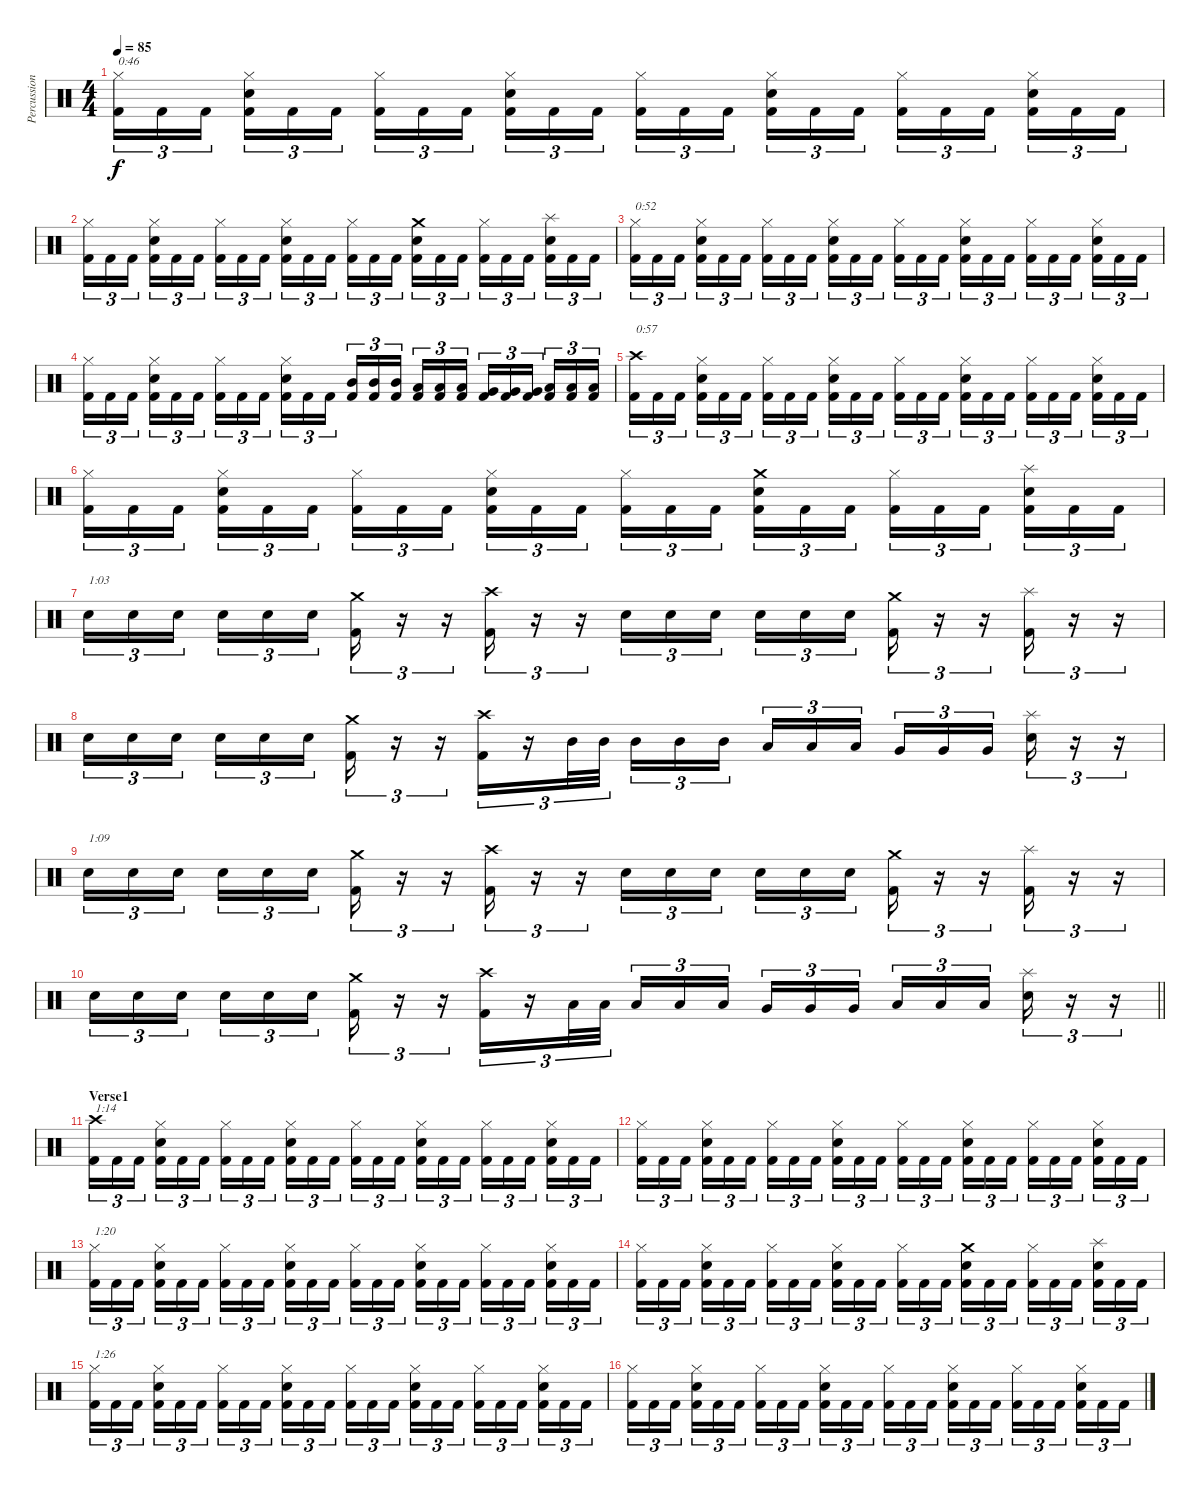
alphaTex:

\track ("Percussion" "Percussion") {instrument percussion}
\staff {score}
\articulation defaults
\ts (4 4)
\tempo 85
\clef neutral
\ks c
("Hi-Hat (closed)" "Kick (hit) 2").16{tu (3 2) txt "0:46" dy f} "Kick (hit) 2".16{tu (3 2)} "Kick (hit) 2".16{tu (3 2)} ("Hi-Hat (closed)" "Electric Snare (hit)" "Kick (hit) 2").16{tu (3 2)} "Kick (hit) 2".16{tu (3 2)} "Kick (hit) 2".16{tu (3 2)} ("Hi-Hat (closed)" "Kick (hit) 2").16{tu (3 2)} "Kick (hit) 2".16{tu (3 2)} "Kick (hit) 2".16{tu (3 2)} ("Hi-Hat (closed)" "Electric Snare (hit)" "Kick (hit) 2").16{tu (3 2)} "Kick (hit) 2".16{tu (3 2)} "Kick (hit) 2".16{tu (3 2)} ("Hi-Hat (closed)" "Kick (hit) 2").16{tu (3 2)} "Kick (hit) 2".16{tu (3 2)} "Kick (hit) 2".16{tu (3 2)} ("Hi-Hat (closed)" "Electric Snare (hit)" "Kick (hit) 2").16{tu (3 2)} "Kick (hit) 2".16{tu (3 2)} "Kick (hit) 2".16{tu (3 2)} ("Hi-Hat (closed)" "Kick (hit) 2").16{tu (3 2)} "Kick (hit) 2".16{tu (3 2)} "Kick (hit) 2".16{tu (3 2)} ("Hi-Hat (closed)" "Electric Snare (hit)" "Kick (hit) 2").16{tu (3 2)} "Kick (hit) 2".16{tu (3 2)} "Kick (hit) 2".16{tu (3 2)} |
("Hi-Hat (closed)" "Kick (hit) 2").16{tu (3 2)} "Kick (hit) 2".16{tu (3 2)} "Kick (hit) 2".16{tu (3 2)} ("Hi-Hat (closed)" "Electric Snare (hit)" "Kick (hit) 2").16{tu (3 2)} "Kick (hit) 2".16{tu (3 2)} "Kick (hit) 2".16{tu (3 2)} ("Hi-Hat (closed)" "Kick (hit) 2").16{tu (3 2)} "Kick (hit) 2".16{tu (3 2)} "Kick (hit) 2".16{tu (3 2)} ("Hi-Hat (closed)" "Electric Snare (hit)" "Kick (hit) 2").16{tu (3 2)} "Kick (hit) 2".16{tu (3 2)} "Kick (hit) 2".16{tu (3 2)} ("Hi-Hat (closed)" "Kick (hit) 2").16{tu (3 2)} "Kick (hit) 2".16{tu (3 2)} "Kick (hit) 2".16{tu (3 2)} ("Crash medium (hit)" "Electric Snare (hit)" "Kick (hit) 2").16{tu (3 2)} "Kick (hit) 2".16{tu (3 2)} "Kick (hit) 2".16{tu (3 2)} ("Hi-Hat (closed)" "Kick (hit) 2").16{tu (3 2)} "Kick (hit) 2".16{tu (3 2)} "Kick (hit) 2".16{tu (3 2)} ("Splash (hit)" "Electric Snare (hit)" "Kick (hit) 2").16{tu (3 2)} "Kick (hit) 2".16{tu (3 2)} "Kick (hit) 2".16{tu (3 2)} |
("Hi-Hat (closed)" "Kick (hit) 2").16{tu (3 2) txt "0:52"} "Kick (hit) 2".16{tu (3 2)} "Kick (hit) 2".16{tu (3 2)} ("Hi-Hat (closed)" "Electric Snare (hit)" "Kick (hit) 2").16{tu (3 2)} "Kick (hit) 2".16{tu (3 2)} "Kick (hit) 2".16{tu (3 2)} ("Hi-Hat (closed)" "Kick (hit) 2").16{tu (3 2)} "Kick (hit) 2".16{tu (3 2)} "Kick (hit) 2".16{tu (3 2)} ("Hi-Hat (closed)" "Electric Snare (hit)" "Kick (hit) 2").16{tu (3 2)} "Kick (hit) 2".16{tu (3 2)} "Kick (hit) 2".16{tu (3 2)} ("Hi-Hat (closed)" "Kick (hit) 2").16{tu (3 2)} "Kick (hit) 2".16{tu (3 2)} "Kick (hit) 2".16{tu (3 2)} ("Hi-Hat (closed)" "Electric Snare (hit)" "Kick (hit) 2").16{tu (3 2)} "Kick (hit) 2".16{tu (3 2)} "Kick (hit) 2".16{tu (3 2)} ("Hi-Hat (closed)" "Kick (hit) 2").16{tu (3 2)} "Kick (hit) 2".16{tu (3 2)} "Kick (hit) 2".16{tu (3 2)} ("Hi-Hat (closed)" "Electric Snare (hit)" "Kick (hit) 2").16{tu (3 2)} "Kick (hit) 2".16{tu (3 2)} "Kick (hit) 2".16{tu (3 2)} |
("Hi-Hat (closed)" "Kick (hit) 2").16{tu (3 2)} "Kick (hit) 2".16{tu (3 2)} "Kick (hit) 2".16{tu (3 2)} ("Hi-Hat (closed)" "Electric Snare (hit)" "Kick (hit) 2").16{tu (3 2)} "Kick (hit) 2".16{tu (3 2)} "Kick (hit) 2".16{tu (3 2)} ("Hi-Hat (closed)" "Kick (hit) 2").16{tu (3 2)} "Kick (hit) 2".16{tu (3 2)} "Kick (hit) 2".16{tu (3 2)} ("Hi-Hat (closed)" "Electric Snare (hit)" "Kick (hit) 2").16{tu (3 2)} "Kick (hit) 2".16{tu (3 2)} "Kick (hit) 2".16{tu (3 2)} ("Mid Tom (hit)" "Kick (hit) 2").16{tu (3 2)} ("Mid Tom (hit)" "Kick (hit) 2").16{tu (3 2)} ("Mid Tom (hit)" "Kick (hit) 2").16{tu (3 2)} ("Low Tom (hit)" "Kick (hit) 2").16{tu (3 2)} ("Low Tom (hit)" "Kick (hit) 2").16{tu (3 2)} ("Low Tom (hit)" "Kick (hit) 2").16{tu (3 2)} ("Very Low Tom (hit)" "Kick (hit) 2").16{tu (3 2)} ("Very Low Tom (hit)" "Kick (hit) 2").16{tu (3 2)} ("Very Low Tom (hit)" "Kick (hit) 2").16{tu (3 2)} ("Low Floor Tom (hit)" "Kick (hit) 2").16{tu (3 2)} ("Low Floor Tom (hit)" "Kick (hit) 2").16{tu (3 2)} ("Low Floor Tom (hit)" "Kick (hit) 2").16{tu (3 2)} |
("Crash high (hit)" "Kick (hit) 2").16{tu (3 2) txt "0:57"} "Kick (hit) 2".16{tu (3 2)} "Kick (hit) 2".16{tu (3 2)} ("Hi-Hat (closed)" "Electric Snare (hit)" "Kick (hit) 2").16{tu (3 2)} "Kick (hit) 2".16{tu (3 2)} "Kick (hit) 2".16{tu (3 2)} ("Hi-Hat (closed)" "Kick (hit) 2").16{tu (3 2)} "Kick (hit) 2".16{tu (3 2)} "Kick (hit) 2".16{tu (3 2)} ("Hi-Hat (closed)" "Electric Snare (hit)" "Kick (hit) 2").16{tu (3 2)} "Kick (hit) 2".16{tu (3 2)} "Kick (hit) 2".16{tu (3 2)} ("Hi-Hat (closed)" "Kick (hit) 2").16{tu (3 2)} "Kick (hit) 2".16{tu (3 2)} "Kick (hit) 2".16{tu (3 2)} ("Hi-Hat (closed)" "Electric Snare (hit)" "Kick (hit) 2").16{tu (3 2)} "Kick (hit) 2".16{tu (3 2)} "Kick (hit) 2".16{tu (3 2)} ("Hi-Hat (closed)" "Kick (hit) 2").16{tu (3 2)} "Kick (hit) 2".16{tu (3 2)} "Kick (hit) 2".16{tu (3 2)} ("Hi-Hat (closed)" "Electric Snare (hit)" "Kick (hit) 2").16{tu (3 2)} "Kick (hit) 2".16{tu (3 2)} "Kick (hit) 2".16{tu (3 2)} |
("Hi-Hat (closed)" "Kick (hit) 2").16{tu (3 2)} "Kick (hit) 2".16{tu (3 2)} "Kick (hit) 2".16{tu (3 2)} ("Hi-Hat (closed)" "Electric Snare (hit)" "Kick (hit) 2").16{tu (3 2)} "Kick (hit) 2".16{tu (3 2)} "Kick (hit) 2".16{tu (3 2)} ("Hi-Hat (closed)" "Kick (hit) 2").16{tu (3 2)} "Kick (hit) 2".16{tu (3 2)} "Kick (hit) 2".16{tu (3 2)} ("Hi-Hat (closed)" "Electric Snare (hit)" "Kick (hit) 2").16{tu (3 2)} "Kick (hit) 2".16{tu (3 2)} "Kick (hit) 2".16{tu (3 2)} ("Hi-Hat (closed)" "Kick (hit) 2").16{tu (3 2)} "Kick (hit) 2".16{tu (3 2)} "Kick (hit) 2".16{tu (3 2)} ("Crash medium (hit)" "Electric Snare (hit)" "Kick (hit) 2").16{tu (3 2)} "Kick (hit) 2".16{tu (3 2)} "Kick (hit) 2".16{tu (3 2)} ("Hi-Hat (closed)" "Kick (hit) 2").16{tu (3 2)} "Kick (hit) 2".16{tu (3 2)} "Kick (hit) 2".16{tu (3 2)} ("Splash (hit)" "Electric Snare (hit)" "Kick (hit) 2").16{tu (3 2)} "Kick (hit) 2".16{tu (3 2)} "Kick (hit) 2".16{tu (3 2)} |
"Electric Snare (hit)".16{tu (3 2) txt "1:03"} "Electric Snare (hit)".16{tu (3 2)} "Electric Snare (hit)".16{tu (3 2)} "Electric Snare (hit)".16{tu (3 2)} "Electric Snare (hit)".16{tu (3 2)} "Electric Snare (hit)".16{tu (3 2)} ("Crash medium (hit)" "Kick (hit) 2").16{tu (3 2)} r.16{tu (3 2)} r.16{tu (3 2)} ("Crash high (hit)" "Kick (hit) 2").16{tu (3 2)} r.16{tu (3 2)} r.16{tu (3 2)} "Electric Snare (hit)".16{tu (3 2)} "Electric Snare (hit)".16{tu (3 2)} "Electric Snare (hit)".16{tu (3 2)} "Electric Snare (hit)".16{tu (3 2)} "Electric Snare (hit)".16{tu (3 2)} "Electric Snare (hit)".16{tu (3 2)} ("Crash medium (hit)" "Kick (hit) 2").16{tu (3 2)} r.16{tu (3 2)} r.16{tu (3 2)} ("Splash (hit)" "Kick (hit) 2").16{tu (3 2)} r.16{tu (3 2)} r.16{tu (3 2)} |
"Electric Snare (hit)".16{tu (3 2)} "Electric Snare (hit)".16{tu (3 2)} "Electric Snare (hit)".16{tu (3 2)} "Electric Snare (hit)".16{tu (3 2)} "Electric Snare (hit)".16{tu (3 2)} "Electric Snare (hit)".16{tu (3 2)} ("Crash medium (hit)" "Kick (hit) 2").16{tu (3 2)} r.16{tu (3 2)} r.16{tu (3 2)} ("Crash high (hit)" "Kick (hit) 2").16{tu (3 2)} r.16{tu (3 2)} "Mid Tom (hit)".32{tu (3 2)} "Mid Tom (hit)".32{tu (3 2)} "Mid Tom (hit)".16{tu (3 2)} "Mid Tom (hit)".16{tu (3 2)} "Mid Tom (hit)".16{tu (3 2)} "Low Tom (hit)".16{tu (3 2)} "Low Tom (hit)".16{tu (3 2)} "Low Tom (hit)".16{tu (3 2)} "Very Low Tom (hit)".16{tu (3 2)} "Very Low Tom (hit)".16{tu (3 2)} "Very Low Tom (hit)".16{tu (3 2)} ("Splash (hit)" "Electric Snare (hit)").16{tu (3 2)} r.16{tu (3 2)} r.16{tu (3 2)} |
"Electric Snare (hit)".16{tu (3 2) txt "1:09"} "Electric Snare (hit)".16{tu (3 2)} "Electric Snare (hit)".16{tu (3 2)} "Electric Snare (hit)".16{tu (3 2)} "Electric Snare (hit)".16{tu (3 2)} "Electric Snare (hit)".16{tu (3 2)} ("Crash medium (hit)" "Kick (hit) 2").16{tu (3 2)} r.16{tu (3 2)} r.16{tu (3 2)} ("Crash high (hit)" "Kick (hit) 2").16{tu (3 2)} r.16{tu (3 2)} r.16{tu (3 2)} "Electric Snare (hit)".16{tu (3 2)} "Electric Snare (hit)".16{tu (3 2)} "Electric Snare (hit)".16{tu (3 2)} "Electric Snare (hit)".16{tu (3 2)} "Electric Snare (hit)".16{tu (3 2)} "Electric Snare (hit)".16{tu (3 2)} ("Crash medium (hit)" "Kick (hit) 2").16{tu (3 2)} r.16{tu (3 2)} r.16{tu (3 2)} ("Splash (hit)" "Kick (hit) 2").16{tu (3 2)} r.16{tu (3 2)} r.16{tu (3 2)} |
\barLineRight lightlight "Electric Snare (hit)".16{tu (3 2)} "Electric Snare (hit)".16{tu (3 2)} "Electric Snare (hit)".16{tu (3 2)} "Electric Snare (hit)".16{tu (3 2)} "Electric Snare (hit)".16{tu (3 2)} "Electric Snare (hit)".16{tu (3 2)}
("Crash medium (hit)" "Kick (hit) 2").16{tu (3 2)} r.16{tu (3 2)} r.16{tu (3 2)} ("Crash high (hit)" "Kick (hit) 2").16{tu (3 2)} r.16{tu (3 2)} "Low Tom (hit)".32{tu (3 2)} "Low Tom (hit)".32{tu (3 2)} "Low Tom (hit)".16{tu (3 2)} "Low Tom (hit)".16{tu (3 2)} "Low Tom (hit)".16{tu (3 2)} "Very Low Tom (hit)".16{tu (3 2)} "Very Low Tom (hit)".16{tu (3 2)} "Very Low Tom (hit)".16{tu (3 2)} "Low Floor Tom (hit)".16{tu (3 2)} "Low Floor Tom (hit)".16{tu (3 2)} "Low Floor Tom (hit)".16{tu (3 2)} ("Splash (hit)" "Electric Snare (hit)").16{tu (3 2)} r.16{tu (3 2)} r.16{tu (3 2)} |
\section ("" "Verse1")
("Crash high (hit)" "Kick (hit) 2").16{tu (3 2) txt "1:14"} "Kick (hit) 2".16{tu (3 2)} "Kick (hit) 2".16{tu (3 2)} ("Hi-Hat (closed)" "Electric Snare (hit)" "Kick (hit) 2").16{tu (3 2)} "Kick (hit) 2".16{tu (3 2)} "Kick (hit) 2".16{tu (3 2)} ("Hi-Hat (closed)" "Kick (hit) 2").16{tu (3 2)} "Kick (hit) 2".16{tu (3 2)} "Kick (hit) 2".16{tu (3 2)} ("Hi-Hat (closed)" "Electric Snare (hit)" "Kick (hit) 2").16{tu (3 2)} "Kick (hit) 2".16{tu (3 2)} "Kick (hit) 2".16{tu (3 2)} ("Hi-Hat (closed)" "Kick (hit) 2").16{tu (3 2)} "Kick (hit) 2".16{tu (3 2)} "Kick (hit) 2".16{tu (3 2)} ("Hi-Hat (closed)" "Electric Snare (hit)" "Kick (hit) 2").16{tu (3 2)} "Kick (hit) 2".16{tu (3 2)} "Kick (hit) 2".16{tu (3 2)} ("Hi-Hat (closed)" "Kick (hit) 2").16{tu (3 2)} "Kick (hit) 2".16{tu (3 2)} "Kick (hit) 2".16{tu (3 2)} ("Hi-Hat (closed)" "Electric Snare (hit)" "Kick (hit) 2").16{tu (3 2)} "Kick (hit) 2".16{tu (3 2)} "Kick (hit) 2".16{tu (3 2)} |
("Hi-Hat (closed)" "Kick (hit) 2").16{tu (3 2)} "Kick (hit) 2".16{tu (3 2)} "Kick (hit) 2".16{tu (3 2)} ("Hi-Hat (closed)" "Electric Snare (hit)" "Kick (hit) 2").16{tu (3 2)} "Kick (hit) 2".16{tu (3 2)} "Kick (hit) 2".16{tu (3 2)} ("Hi-Hat (closed)" "Kick (hit) 2").16{tu (3 2)} "Kick (hit) 2".16{tu (3 2)} "Kick (hit) 2".16{tu (3 2)} ("Hi-Hat (closed)" "Electric Snare (hit)" "Kick (hit) 2").16{tu (3 2)} "Kick (hit) 2".16{tu (3 2)} "Kick (hit) 2".16{tu (3 2)} ("Hi-Hat (closed)" "Kick (hit) 2").16{tu (3 2)} "Kick (hit) 2".16{tu (3 2)} "Kick (hit) 2".16{tu (3 2)} ("Hi-Hat (closed)" "Electric Snare (hit)" "Kick (hit) 2").16{tu (3 2)} "Kick (hit) 2".16{tu (3 2)} "Kick (hit) 2".16{tu (3 2)} ("Hi-Hat (closed)" "Kick (hit) 2").16{tu (3 2)} "Kick (hit) 2".16{tu (3 2)} "Kick (hit) 2".16{tu (3 2)} ("Hi-Hat (closed)" "Electric Snare (hit)" "Kick (hit) 2").16{tu (3 2)} "Kick (hit) 2".16{tu (3 2)} "Kick (hit) 2".16{tu (3 2)} |
("Hi-Hat (closed)" "Kick (hit) 2").16{tu (3 2) txt "1:20"} "Kick (hit) 2".16{tu (3 2)} "Kick (hit) 2".16{tu (3 2)} ("Hi-Hat (closed)" "Electric Snare (hit)" "Kick (hit) 2").16{tu (3 2)} "Kick (hit) 2".16{tu (3 2)} "Kick (hit) 2".16{tu (3 2)} ("Hi-Hat (closed)" "Kick (hit) 2").16{tu (3 2)} "Kick (hit) 2".16{tu (3 2)} "Kick (hit) 2".16{tu (3 2)} ("Hi-Hat (closed)" "Electric Snare (hit)" "Kick (hit) 2").16{tu (3 2)} "Kick (hit) 2".16{tu (3 2)} "Kick (hit) 2".16{tu (3 2)} ("Hi-Hat (closed)" "Kick (hit) 2").16{tu (3 2)} "Kick (hit) 2".16{tu (3 2)} "Kick (hit) 2".16{tu (3 2)} ("Hi-Hat (closed)" "Electric Snare (hit)" "Kick (hit) 2").16{tu (3 2)} "Kick (hit) 2".16{tu (3 2)} "Kick (hit) 2".16{tu (3 2)} ("Hi-Hat (closed)" "Kick (hit) 2").16{tu (3 2)} "Kick (hit) 2".16{tu (3 2)} "Kick (hit) 2".16{tu (3 2)} ("Hi-Hat (closed)" "Electric Snare (hit)" "Kick (hit) 2").16{tu (3 2)} "Kick (hit) 2".16{tu (3 2)} "Kick (hit) 2".16{tu (3 2)} |
("Hi-Hat (closed)" "Kick (hit) 2").16{tu (3 2)} "Kick (hit) 2".16{tu (3 2)} "Kick (hit) 2".16{tu (3 2)} ("Hi-Hat (closed)" "Electric Snare (hit)" "Kick (hit) 2").16{tu (3 2)} "Kick (hit) 2".16{tu (3 2)} "Kick (hit) 2".16{tu (3 2)} ("Hi-Hat (closed)" "Kick (hit) 2").16{tu (3 2)} "Kick (hit) 2".16{tu (3 2)} "Kick (hit) 2".16{tu (3 2)} ("Hi-Hat (closed)" "Electric Snare (hit)" "Kick (hit) 2").16{tu (3 2)} "Kick (hit) 2".16{tu (3 2)} "Kick (hit) 2".16{tu (3 2)} ("Hi-Hat (closed)" "Kick (hit) 2").16{tu (3 2)} "Kick (hit) 2".16{tu (3 2)} "Kick (hit) 2".16{tu (3 2)} ("Crash medium (hit)" "Electric Snare (hit)" "Kick (hit) 2").16{tu (3 2)} "Kick (hit) 2".16{tu (3 2)} "Kick (hit) 2".16{tu (3 2)} ("Hi-Hat (closed)" "Kick (hit) 2").16{tu (3 2)} "Kick (hit) 2".16{tu (3 2)} "Kick (hit) 2".16{tu (3 2)} ("Splash (hit)" "Electric Snare (hit)" "Kick (hit) 2").16{tu (3 2)} "Kick (hit) 2".16{tu (3 2)} "Kick (hit) 2".16{tu (3 2)} |
("Hi-Hat (closed)" "Kick (hit) 2").16{tu (3 2) txt "1:26"} "Kick (hit) 2".16{tu (3 2)} "Kick (hit) 2".16{tu (3 2)} ("Hi-Hat (closed)" "Electric Snare (hit)" "Kick (hit) 2").16{tu (3 2)} "Kick (hit) 2".16{tu (3 2)} "Kick (hit) 2".16{tu (3 2)} ("Hi-Hat (closed)" "Kick (hit) 2").16{tu (3 2)} "Kick (hit) 2".16{tu (3 2)} "Kick (hit) 2".16{tu (3 2)} ("Hi-Hat (closed)" "Electric Snare (hit)" "Kick (hit) 2").16{tu (3 2)} "Kick (hit) 2".16{tu (3 2)} "Kick (hit) 2".16{tu (3 2)} ("Hi-Hat (closed)" "Kick (hit) 2").16{tu (3 2)} "Kick (hit) 2".16{tu (3 2)} "Kick (hit) 2".16{tu (3 2)} ("Hi-Hat (closed)" "Electric Snare (hit)" "Kick (hit) 2").16{tu (3 2)} "Kick (hit) 2".16{tu (3 2)} "Kick (hit) 2".16{tu (3 2)} ("Hi-Hat (closed)" "Kick (hit) 2").16{tu (3 2)} "Kick (hit) 2".16{tu (3 2)} "Kick (hit) 2".16{tu (3 2)} ("Hi-Hat (closed)" "Electric Snare (hit)" "Kick (hit) 2").16{tu (3 2)} "Kick (hit) 2".16{tu (3 2)} "Kick (hit) 2".16{tu (3 2)} |
("Hi-Hat (closed)" "Kick (hit) 2").16{tu (3 2)} "Kick (hit) 2".16{tu (3 2)} "Kick (hit) 2".16{tu (3 2)} ("Hi-Hat (closed)" "Electric Snare (hit)" "Kick (hit) 2").16{tu (3 2)} "Kick (hit) 2".16{tu (3 2)} "Kick (hit) 2".16{tu (3 2)} ("Hi-Hat (closed)" "Kick (hit) 2").16{tu (3 2)} "Kick (hit) 2".16{tu (3 2)} "Kick (hit) 2".16{tu (3 2)} ("Hi-Hat (closed)" "Electric Snare (hit)" "Kick (hit) 2").16{tu (3 2)} "Kick (hit) 2".16{tu (3 2)} "Kick (hit) 2".16{tu (3 2)} ("Hi-Hat (closed)" "Kick (hit) 2").16{tu (3 2)} "Kick (hit) 2".16{tu (3 2)} "Kick (hit) 2".16{tu (3 2)} ("Hi-Hat (closed)" "Electric Snare (hit)" "Kick (hit) 2").16{tu (3 2)} "Kick (hit) 2".16{tu (3 2)} "Kick (hit) 2".16{tu (3 2)} ("Hi-Hat (closed)" "Kick (hit) 2").16{tu (3 2)} "Kick (hit) 2".16{tu (3 2)} "Kick (hit) 2".16{tu (3 2)} ("Hi-Hat (closed)" "Electric Snare (hit)" "Kick (hit) 2").16{tu (3 2)} "Kick (hit) 2".16{tu (3 2)} "Kick (hit) 2".16{tu (3 2)}
